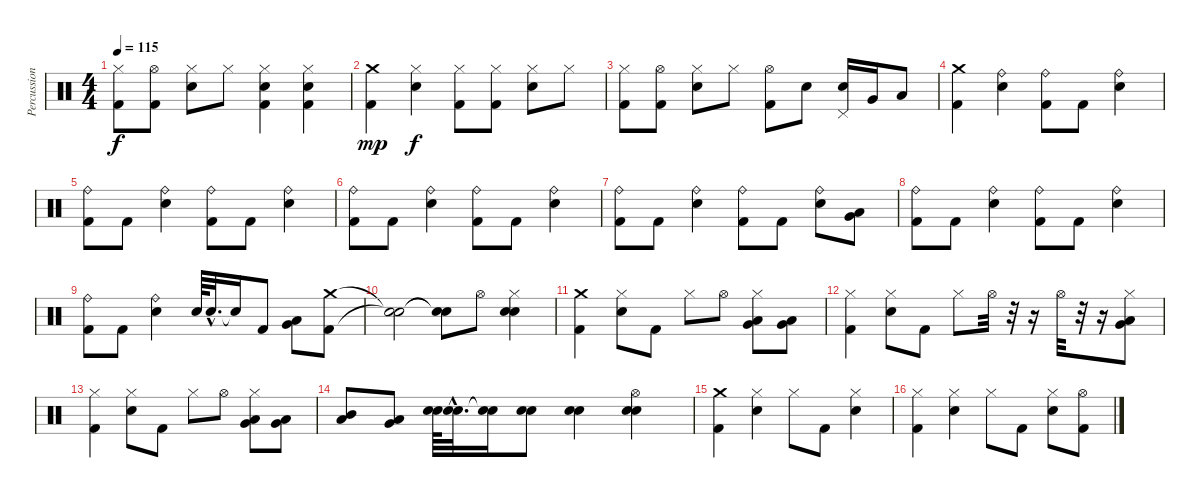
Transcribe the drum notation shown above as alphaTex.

\track ("Percussion" "Percussion") {instrument percussion}
\staff {score}
\articulation defaults
\ts (4 4)
\tempo 115
\clef neutral
\ks c
("Hi-Hat (closed)" "Kick (hit) 2").8{dy f} ("Hi-Hat (open)" "Kick (hit) 2").8 ("Hi-Hat (closed)" "Metronome (bell)").8 "Hi-Hat (closed)".8 ("Hi-Hat (closed)" "Metronome (bell)" "Kick (hit) 2").4 ("Hi-Hat (closed)" "Metronome (bell)" "Kick (hit) 2").4 |
("Crash medium (hit)" "Kick (hit) 2").4{dy mp} ("Hi-Hat (closed)" "Metronome (bell)").4{dy f} ("Hi-Hat (closed)" "Kick (hit) 2").8 ("Hi-Hat (closed)" "Kick (hit) 2").8 ("Hi-Hat (closed)" "Metronome (bell)").8 "Hi-Hat (closed)".8 |
("Hi-Hat (closed)" "Kick (hit) 2").8 ("Hi-Hat (open)" "Kick (hit) 2").8 ("Hi-Hat (closed)" "Metronome (bell)").8 "Hi-Hat (closed)".8 ("Hi-Hat (open)" "Kick (hit) 2").8 "Metronome (bell)".8 ("Pedal Hi-Hat (hit)" "Metronome (bell)").16 "Very Low Tom (hit)".16 "Low Floor Tom (hit)".8 |
("Crash medium (hit)" "Kick (hit) 2").4 ("Ride (bell)" "Metronome (bell)").4 ("Ride (bell)" "Kick (hit) 2").8 "Kick (hit) 2".8 ("Ride (bell)" "Metronome (bell)").4 |
("Ride (bell)" "Kick (hit) 2").8 "Kick (hit) 2".8 ("Ride (bell)" "Metronome (bell)").4 ("Ride (bell)" "Kick (hit) 2").8 "Kick (hit) 2".8 ("Ride (bell)" "Metronome (bell)").4 |
("Ride (bell)" "Kick (hit) 2").8 "Kick (hit) 2".8 ("Ride (bell)" "Metronome (bell)").4 ("Ride (bell)" "Kick (hit) 2").8 "Kick (hit) 2".8 ("Ride (bell)" "Metronome (bell)").4 |
("Ride (bell)" "Kick (hit) 2").8 "Kick (hit) 2".8 ("Ride (bell)" "Metronome (bell)").4 ("Ride (bell)" "Kick (hit) 2").8 "Kick (hit) 2".8 ("Ride (bell)" "Metronome (bell)").8 ("Low Tom (hit)" "Very Low Tom (hit)").8 |
("Ride (bell)" "Kick (hit) 2").8 "Kick (hit) 2".8 ("Ride (bell)" "Metronome (bell)").4 ("Ride (bell)" "Kick (hit) 2").8 "Kick (hit) 2".8 ("Ride (bell)" "Metronome (bell)").4 |
("Ride (bell)" "Kick (hit) 2").8 "Kick (hit) 2".8 ("Ride (bell)" "Metronome (bell)").4 "Metronome (bell)".64 "Metronome (bell)"{hac}.32{d} "Snare (hit)"{t}.16 "Kick (hit) 2".8 ("Low Tom (hit)" "Very Low Tom (hit)").8 ("Crash medium (hit)" "Kick (hit) 2").8 |
("Snare (hit)"{t} "Snare (hit)"{t}).2 ("Snare (hit)"{t} "Snare (hit)"{t}).8 "Hi-Hat (open)".8 ("Hi-Hat (closed)" "Metronome (bell)" "Electric Snare (hit)").4 |
("Crash medium (hit)" "Kick (hit) 2").4 ("Hi-Hat (closed)" "Metronome (bell)").8 "Kick (hit) 2".8 "Hi-Hat (closed)".8 "Hi-Hat (open)".8 ("Hi-Hat (closed)" "Low Tom (hit)" "Very Low Tom (hit)").8 ("Very Low Tom (hit)" "Low Floor Tom (hit)").8 |
("Hi-Hat (closed)" "Kick (hit) 2").4 ("Hi-Hat (closed)" "Metronome (bell)").8 "Kick (hit) 2".8 "Hi-Hat (closed)".8 "Hi-Hat (open)".32 r.32 r.16 "Hi-Hat (open)".32 r.32 r.16 ("Hi-Hat (closed)" "Very Low Tom (hit)" "Low Floor Tom (hit)").8 |
("Hi-Hat (closed)" "Kick (hit) 2").4 ("Hi-Hat (closed)" "Metronome (bell)").8 "Kick (hit) 2".8 "Hi-Hat (closed)".8 "Hi-Hat (open)".8 ("Hi-Hat (closed)" "Low Tom (hit)" "Very Low Tom (hit)").8 ("Very Low Tom (hit)" "Low Floor Tom (hit)").8 |
("Mid Tom (hit)" "Low Tom (hit)").8 ("Low Tom (hit)" "Very Low Tom (hit)").8 ("Metronome (bell)" "Electric Snare (hit)").64 ("Metronome (bell)"{hac} "Electric Snare (hit)"{hac}).32{d} ("Snare (hit)"{t} "Snare (hit)"{t}).16 ("Metronome (bell)" "Electric Snare (hit)").8 ("Metronome (bell)" "Electric Snare (hit)").4 ("Hi-Hat (open)" "Metronome (bell)" "Electric Snare (hit)").4 |
("Crash medium (hit)" "Kick (hit) 2").4 ("Hi-Hat (closed)" "Metronome (bell)").4 "Hi-Hat (closed)".8 "Kick (hit) 2".8 ("Hi-Hat (closed)" "Metronome (bell)").4 |
("Hi-Hat (closed)" "Kick (hit) 2").4 ("Hi-Hat (closed)" "Metronome (bell)").4 "Hi-Hat (closed)".8 "Kick (hit) 2".8 ("Hi-Hat (closed)" "Metronome (bell)").8 ("Hi-Hat (open)" "Kick (hit) 2").8
